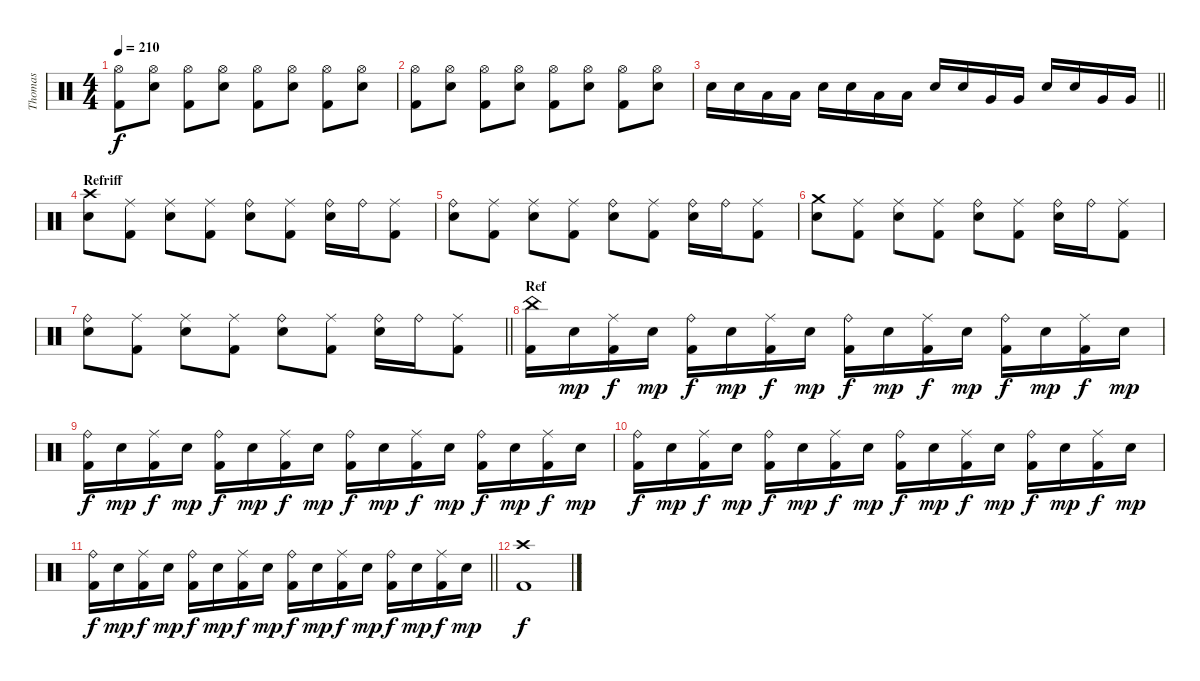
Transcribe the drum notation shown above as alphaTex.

\track ("Thomas" "Thomas") {instrument percussion}
\staff {score}
\articulation defaults
\ts (4 4)
\tempo 210
\clef neutral
\ks c
("Hi-Hat (open)" "Kick (hit) 2").8{dy f} ("Hi-Hat (open)" "Snare (hit) 2").8 ("Hi-Hat (open)" "Kick (hit) 2").8 ("Hi-Hat (open)" "Snare (hit) 2").8 ("Hi-Hat (open)" "Kick (hit) 2").8 ("Hi-Hat (open)" "Snare (hit) 2").8 ("Hi-Hat (open)" "Kick (hit) 2").8 ("Hi-Hat (open)" "Snare (hit) 2").8 |
("Hi-Hat (open)" "Kick (hit) 2").8 ("Hi-Hat (open)" "Snare (hit) 2").8 ("Hi-Hat (open)" "Kick (hit) 2").8 ("Hi-Hat (open)" "Snare (hit) 2").8 ("Hi-Hat (open)" "Kick (hit) 2").8 ("Hi-Hat (open)" "Snare (hit) 2").8 ("Hi-Hat (open)" "Kick (hit) 2").8 ("Hi-Hat (open)" "Snare (hit) 2").8 |
\barLineRight lightlight "Snare (hit) 2".16 "Snare (hit) 2".16 "Low Floor Tom (hit)".16 "Low Floor Tom (hit)".16 "Snare (hit) 2".16 "Snare (hit) 2".16 "Low Floor Tom (hit)".16 "Low Floor Tom (hit)".16 "Snare (hit) 2".16 "Snare (hit) 2".16 "Very Low Tom (hit)".16 "Very Low Tom (hit)".16 "Snare (hit) 2".16 "Snare (hit) 2".16 "Very Low Tom (hit)".16 "Very Low Tom (hit)".16
|
\section ("" "Refriff")
("Crash high (hit)" "Snare (hit) 2").8 ("Ride (middle)" "Kick (hit) 2").8 ("Ride (middle)" "Snare (hit) 2").8 ("Ride (middle)" "Kick (hit) 2").8 ("Ride (bell)" "Snare (hit) 2").8 ("Ride (middle)" "Kick (hit) 2").8 ("Ride (bell)" "Snare (hit) 2").16 "Ride (bell)".16 ("Ride (middle)" "Kick (hit) 2").8 |
("Ride (bell)" "Snare (hit) 2").8 ("Ride (middle)" "Kick (hit) 2").8 ("Ride (middle)" "Snare (hit) 2").8 ("Ride (middle)" "Kick (hit) 2").8 ("Ride (bell)" "Snare (hit) 2").8 ("Ride (middle)" "Kick (hit) 2").8 ("Ride (bell)" "Snare (hit) 2").16 "Ride (bell)".16 ("Ride (middle)" "Kick (hit) 2").8 |
("Crash medium (hit)" "Snare (hit) 2").8 ("Ride (middle)" "Kick (hit) 2").8 ("Ride (middle)" "Snare (hit) 2").8 ("Ride (middle)" "Kick (hit) 2").8 ("Ride (bell)" "Snare (hit) 2").8 ("Ride (middle)" "Kick (hit) 2").8 ("Ride (bell)" "Snare (hit) 2").16 "Ride (bell)".16 ("Ride (middle)" "Kick (hit) 2").8 |
\barLineRight lightlight
("Ride (bell)" "Snare (hit) 2").8 ("Ride (middle)" "Kick (hit) 2").8 ("Ride (middle)" "Snare (hit) 2").8 ("Ride (middle)" "Kick (hit) 2").8 ("Ride (bell)" "Snare (hit) 2").8 ("Ride (middle)" "Kick (hit) 2").8 ("Ride (bell)" "Snare (hit) 2").16 "Ride (bell)".16 ("Ride (middle)" "Kick (hit) 2").8 |
\section ("" "Ref")
("China (hit)" "Kick (hit) 2").16 "Snare (hit) 2".16{dy mp} ("Ride (middle)" "Kick (hit) 2").16{dy f} "Snare (hit) 2".16{dy mp} ("Ride (bell)" "Kick (hit) 2").16{dy f} "Snare (hit) 2".16{dy mp} ("Ride (middle)" "Kick (hit) 2").16{dy f} "Snare (hit) 2".16{dy mp} ("Ride (bell)" "Kick (hit) 2").16{dy f} "Snare (hit) 2".16{dy mp} ("Ride (middle)" "Kick (hit) 2").16{dy f} "Snare (hit) 2".16{dy mp} ("Ride (bell)" "Kick (hit) 2").16{dy f} "Snare (hit) 2".16{dy mp} ("Ride (middle)" "Kick (hit) 2").16{dy f} "Snare (hit) 2".16{dy mp} |
("Ride (bell)" "Kick (hit) 2").16{dy f} "Snare (hit) 2".16{dy mp} ("Ride (middle)" "Kick (hit) 2").16{dy f} "Snare (hit) 2".16{dy mp} ("Ride (bell)" "Kick (hit) 2").16{dy f} "Snare (hit) 2".16{dy mp} ("Ride (middle)" "Kick (hit) 2").16{dy f} "Snare (hit) 2".16{dy mp} ("Ride (bell)" "Kick (hit) 2").16{dy f} "Snare (hit) 2".16{dy mp} ("Ride (middle)" "Kick (hit) 2").16{dy f} "Snare (hit) 2".16{dy mp} ("Ride (bell)" "Kick (hit) 2").16{dy f} "Snare (hit) 2".16{dy mp} ("Ride (middle)" "Kick (hit) 2").16{dy f} "Snare (hit) 2".16{dy mp} |
("Ride (bell)" "Kick (hit) 2").16{dy f} "Snare (hit) 2".16{dy mp} ("Ride (middle)" "Kick (hit) 2").16{dy f} "Snare (hit) 2".16{dy mp} ("Ride (bell)" "Kick (hit) 2").16{dy f} "Snare (hit) 2".16{dy mp} ("Ride (middle)" "Kick (hit) 2").16{dy f} "Snare (hit) 2".16{dy mp} ("Ride (bell)" "Kick (hit) 2").16{dy f} "Snare (hit) 2".16{dy mp} ("Ride (middle)" "Kick (hit) 2").16{dy f} "Snare (hit) 2".16{dy mp} ("Ride (bell)" "Kick (hit) 2").16{dy f} "Snare (hit) 2".16{dy mp} ("Ride (middle)" "Kick (hit) 2").16{dy f} "Snare (hit) 2".16{dy mp} |
\barLineRight lightlight
("Ride (bell)" "Kick (hit) 2").16{dy f} "Snare (hit) 2".16{dy mp} ("Ride (middle)" "Kick (hit) 2").16{dy f} "Snare (hit) 2".16{dy mp} ("Ride (bell)" "Kick (hit) 2").16{dy f} "Snare (hit) 2".16{dy mp} ("Ride (middle)" "Kick (hit) 2").16{dy f} "Snare (hit) 2".16{dy mp} ("Ride (bell)" "Kick (hit) 2").16{dy f} "Snare (hit) 2".16{dy mp} ("Ride (middle)" "Kick (hit) 2").16{dy f} "Snare (hit) 2".16{dy mp} ("Ride (bell)" "Kick (hit) 2").16{dy f} "Snare (hit) 2".16{dy mp} ("Ride (middle)" "Kick (hit) 2").16{dy f} "Snare (hit) 2".16{dy mp} |
\section ("" "")
("Crash high (hit)" "Kick (hit) 2").1{dy f}
